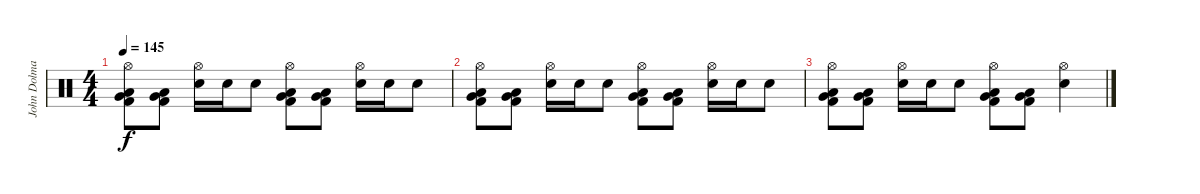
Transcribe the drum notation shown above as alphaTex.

\track ("John Dolmayan (Drums)" "John Dolma") {instrument percussion}
\staff {score}
\articulation defaults
\ts (4 4)
\tempo 145
\clef neutral
\ks c
("Hi-Hat (open)" "Very Low Tom (hit)" "Low Floor Tom (hit)" "Kick (hit) 2").8{dy f} ("Very Low Tom (hit)" "Low Floor Tom (hit)" "Kick (hit) 2").8 ("Hi-Hat (open)" "Electric Snare (hit)").16 "Electric Snare (hit)".16 "Electric Snare (hit)".8 ("Hi-Hat (open)" "Very Low Tom (hit)" "Low Floor Tom (hit)" "Kick (hit) 2").8 ("Very Low Tom (hit)" "Low Floor Tom (hit)" "Kick (hit) 2").8 ("Hi-Hat (open)" "Electric Snare (hit)").16 "Electric Snare (hit)".16 "Electric Snare (hit)".8 |
("Hi-Hat (open)" "Very Low Tom (hit)" "Low Floor Tom (hit)" "Kick (hit) 2").8 ("Very Low Tom (hit)" "Low Floor Tom (hit)" "Kick (hit) 2").8 ("Hi-Hat (open)" "Electric Snare (hit)").16 "Electric Snare (hit)".16 "Electric Snare (hit)".8 ("Hi-Hat (open)" "Very Low Tom (hit)" "Low Floor Tom (hit)" "Kick (hit) 2").8 ("Very Low Tom (hit)" "Low Floor Tom (hit)" "Kick (hit) 2").8 ("Hi-Hat (open)" "Electric Snare (hit)").16 "Electric Snare (hit)".16 "Electric Snare (hit)".8 |
("Hi-Hat (open)" "Very Low Tom (hit)" "Low Floor Tom (hit)" "Kick (hit) 2").8 ("Very Low Tom (hit)" "Low Floor Tom (hit)" "Kick (hit) 2").8 ("Hi-Hat (open)" "Electric Snare (hit)").16 "Electric Snare (hit)".16 "Electric Snare (hit)".8 ("Hi-Hat (open)" "Very Low Tom (hit)" "Low Floor Tom (hit)" "Kick (hit) 2").8 ("Very Low Tom (hit)" "Low Floor Tom (hit)" "Kick (hit) 2").8 ("Hi-Hat (open)" "Electric Snare (hit)").4
